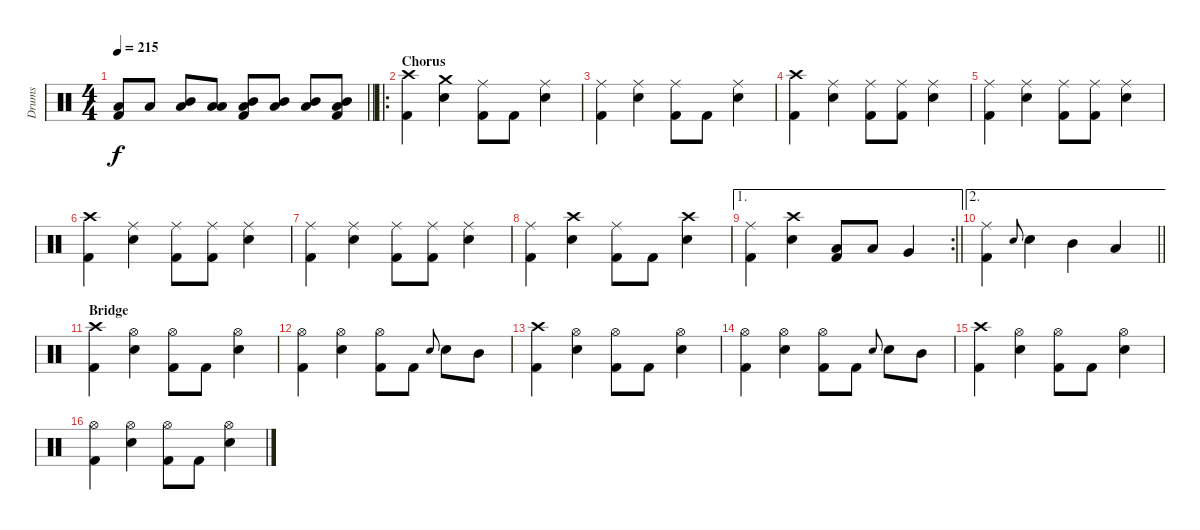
\track ("Drums" "Drums") {instrument percussion}
\staff {score}
\articulation defaults
\ts (4 4)
\tempo 215
\clef neutral
\barLineRight lightlight
\ks c
("Low Tom (hit)" "Kick (hit) 2").8{dy f} "Low Tom (hit)".8 ("Mid Tom (hit)" "Low Tom (hit)").8 ("Low Tom (hit)" "Low Tom (hit)").8 ("Mid Tom (hit)" "Low Tom (hit)" "Kick (hit) 2").8 ("Mid Tom (hit)" "Low Tom (hit)").8 ("Mid Tom (hit)" "Low Tom (hit)").8 ("Mid Tom (hit)" "Low Tom (hit)" "Kick (hit) 2").8 |
\ro
\section ("" "Chorus")
("Crash high (hit)" "Kick (hit) 2").4 ("Crash medium (hit)" "Snare (hit) 2").4 ("Ride (middle)" "Kick (hit) 2").8 "Kick (hit) 2".8 ("Ride (middle)" "Snare (hit) 2").4 |
("Ride (middle)" "Kick (hit) 2").4 ("Ride (middle)" "Snare (hit) 2").4 ("Ride (middle)" "Kick (hit) 2").8 "Kick (hit) 2".8 ("Ride (middle)" "Snare (hit) 2").4 |
("Crash high (hit)" "Kick (hit) 2").4 ("Ride (middle)" "Snare (hit) 2").4 ("Ride (middle)" "Kick (hit) 2").8 ("Ride (middle)" "Kick (hit) 2").8 ("Ride (middle)" "Snare (hit) 2").4 |
("Ride (middle)" "Kick (hit) 2").4 ("Ride (middle)" "Snare (hit) 2").4 ("Ride (middle)" "Kick (hit) 2").8 ("Ride (middle)" "Kick (hit) 2").8 ("Ride (middle)" "Snare (hit) 2").4 |
("Crash high (hit)" "Kick (hit) 2").4 ("Ride (middle)" "Snare (hit) 2").4 ("Ride (middle)" "Kick (hit) 2").8 ("Ride (middle)" "Kick (hit) 2").8 ("Ride (middle)" "Snare (hit) 2").4 |
("Ride (middle)" "Kick (hit) 2").4 ("Ride (middle)" "Snare (hit) 2").4 ("Ride (middle)" "Kick (hit) 2").8 ("Ride (middle)" "Kick (hit) 2").8 ("Ride (middle)" "Snare (hit) 2").4 |
("Ride (middle)" "Kick (hit) 2").4 ("Crash high (hit)" "Snare (hit) 2").4 ("Ride (middle)" "Kick (hit) 2").8 "Kick (hit) 2".8 ("Crash high (hit)" "Snare (hit) 2").4 |
\ae 1
\rc 2
\barLineRight lightlight
("Ride (middle)" "Kick (hit) 2").4 ("Crash high (hit)" "Snare (hit) 2").4 ("Low Tom (hit)" "Kick (hit) 2").8 "Low Tom (hit)".8 "Very Low Tom (hit)".4 |
\ae 2
\barLineRight lightlight
("Ride (middle)" "Kick (hit) 2").4 "Snare (hit) 2".8{gr onbeat} "Snare (hit) 2".4 "Mid Tom (hit)".4 "Low Tom (hit)".4 |
\section ("" "Bridge")
("Crash high (hit)" "Kick (hit) 2").4 ("Hi-Hat (open)" "Snare (hit) 2").4 ("Hi-Hat (open)" "Kick (hit) 2").8 "Kick (hit) 2".8 ("Hi-Hat (open)" "Snare (hit) 2").4 |
("Hi-Hat (open)" "Kick (hit) 2").4 ("Hi-Hat (open)" "Snare (hit) 2").4 ("Hi-Hat (open)" "Kick (hit) 2").8 "Kick (hit) 2".8 "Snare (hit) 2".8{gr onbeat} "Snare (hit) 2".8 "Mid Tom (hit)".8 |
("Crash high (hit)" "Kick (hit) 2").4 ("Hi-Hat (open)" "Snare (hit) 2").4 ("Hi-Hat (open)" "Kick (hit) 2").8 "Kick (hit) 2".8 ("Hi-Hat (open)" "Snare (hit) 2").4 |
("Hi-Hat (open)" "Kick (hit) 2").4 ("Hi-Hat (open)" "Snare (hit) 2").4 ("Hi-Hat (open)" "Kick (hit) 2").8 "Kick (hit) 2".8 "Snare (hit) 2".8{gr onbeat} "Snare (hit) 2".8 "Mid Tom (hit)".8 |
("Crash high (hit)" "Kick (hit) 2").4 ("Hi-Hat (open)" "Snare (hit) 2").4 ("Hi-Hat (open)" "Kick (hit) 2").8 "Kick (hit) 2".8 ("Hi-Hat (open)" "Snare (hit) 2").4 |
("Hi-Hat (open)" "Kick (hit) 2").4 ("Hi-Hat (open)" "Snare (hit) 2").4 ("Hi-Hat (open)" "Kick (hit) 2").8 "Kick (hit) 2".8 ("Hi-Hat (open)" "Snare (hit) 2").4
